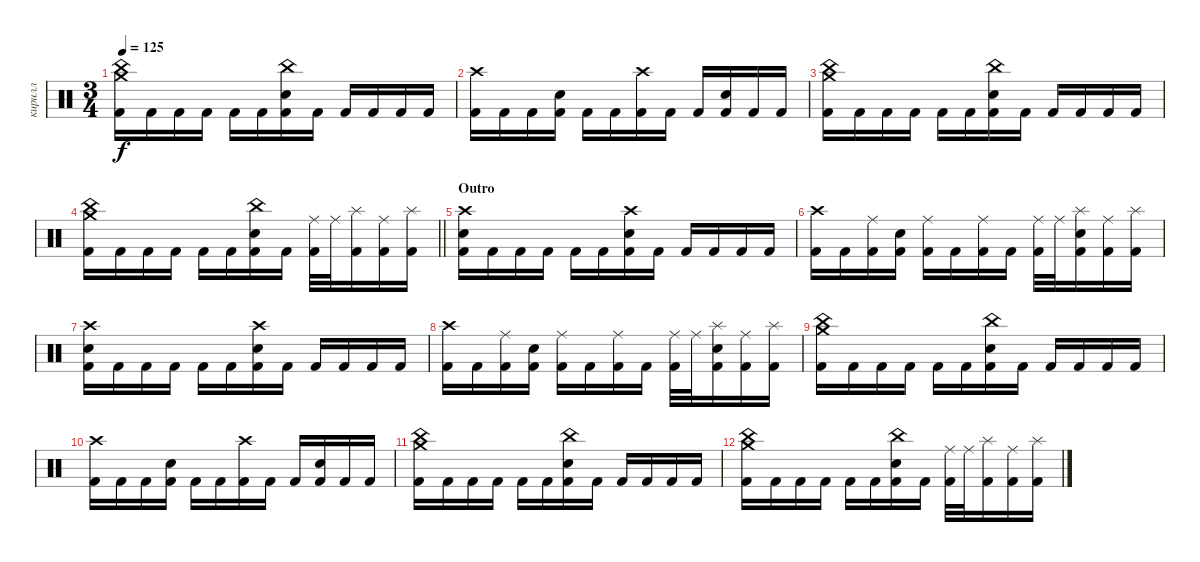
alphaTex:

\track ("кирилл" "кирилл") {instrument percussion}
\staff {score}
\articulation defaults
\ts (3 4)
\tempo 125
\clef neutral
\ks c
("China (hit)" "Crash medium (hit)" "Kick (hit) 2").16{dy f} "Kick (hit) 2".16 "Kick (hit) 2".16 "Kick (hit) 2".16 "Kick (hit) 2".16 "Kick (hit) 2".16 ("China (hit)" "Electric Snare (hit)" "Kick (hit) 2").16 "Kick (hit) 2".16 "Kick (hit) 2".16 "Kick (hit) 2".16 "Kick (hit) 2".16 "Kick (hit) 2".16 |
("Crash high (hit)" "Kick (hit) 2").16 "Kick (hit) 2".16 "Kick (hit) 2".16 ("Electric Snare (hit)" "Kick (hit) 2").16 "Kick (hit) 2".16 "Kick (hit) 2".16 ("Crash high (hit)" "Kick (hit) 2").16 "Kick (hit) 2".16 "Kick (hit) 2".16 ("Electric Snare (hit)" "Kick (hit) 2").16 "Kick (hit) 2".16 "Kick (hit) 2".16 |
("China (hit)" "Crash medium (hit)" "Kick (hit) 2").16 "Kick (hit) 2".16 "Kick (hit) 2".16 "Kick (hit) 2".16 "Kick (hit) 2".16 "Kick (hit) 2".16 ("China (hit)" "Electric Snare (hit)" "Kick (hit) 2").16 "Kick (hit) 2".16 "Kick (hit) 2".16 "Kick (hit) 2".16 "Kick (hit) 2".16 "Kick (hit) 2".16 |
\barLineRight lightlight
("China (hit)" "Crash medium (hit)" "Kick (hit) 2").16 "Kick (hit) 2".16 "Kick (hit) 2".16 "Kick (hit) 2".16 "Kick (hit) 2".16 "Kick (hit) 2".16 ("China (hit)" "Electric Snare (hit)" "Kick (hit) 2").16 "Kick (hit) 2".16 ("Ride (middle)" "Kick (hit) 2").32 "Ride (middle)".32 ("Splash (hit)" "Kick (hit) 2").16 ("Ride (middle)" "Kick (hit) 2").16 ("Splash (hit)" "Kick (hit) 2").16 |
\section ("" "Outro")
("Crash high (hit)" "Electric Snare (hit)" "Kick (hit) 2").16 "Kick (hit) 2".16 "Kick (hit) 2".16 "Kick (hit) 2".16 "Kick (hit) 2".16 "Kick (hit) 2".16 ("Crash high (hit)" "Electric Snare (hit)" "Kick (hit) 2").16 "Kick (hit) 2".16 "Kick (hit) 2".16 "Kick (hit) 2".16 "Kick (hit) 2".16 "Kick (hit) 2".16 |
("Crash high (hit)" "Kick (hit) 2").16 "Kick (hit) 2".16 ("Ride (middle)" "Kick (hit) 2").16 ("Electric Snare (hit)" "Kick (hit) 2").16 ("Ride (middle)" "Kick (hit) 2").16 "Kick (hit) 2".16 ("Ride (middle)" "Kick (hit) 2").16 "Kick (hit) 2".16 ("Ride (middle)" "Kick (hit) 2").32 "Ride (middle)".32 ("Splash (hit)" "Electric Snare (hit)" "Kick (hit) 2").16 ("Ride (middle)" "Kick (hit) 2").16 ("Splash (hit)" "Kick (hit) 2").16 |
("Crash high (hit)" "Electric Snare (hit)" "Kick (hit) 2").16 "Kick (hit) 2".16 "Kick (hit) 2".16 "Kick (hit) 2".16 "Kick (hit) 2".16 "Kick (hit) 2".16 ("Crash high (hit)" "Electric Snare (hit)" "Kick (hit) 2").16 "Kick (hit) 2".16 "Kick (hit) 2".16 "Kick (hit) 2".16 "Kick (hit) 2".16 "Kick (hit) 2".16 |
("Crash high (hit)" "Kick (hit) 2").16 "Kick (hit) 2".16 ("Ride (middle)" "Kick (hit) 2").16 ("Electric Snare (hit)" "Kick (hit) 2").16 ("Ride (middle)" "Kick (hit) 2").16 "Kick (hit) 2".16 ("Ride (middle)" "Kick (hit) 2").16 "Kick (hit) 2".16 ("Ride (middle)" "Kick (hit) 2").32 "Ride (middle)".32 ("Splash (hit)" "Electric Snare (hit)" "Kick (hit) 2").16 ("Ride (middle)" "Kick (hit) 2").16 ("Splash (hit)" "Kick (hit) 2").16 |
("China (hit)" "Crash medium (hit)" "Kick (hit) 2").16 "Kick (hit) 2".16 "Kick (hit) 2".16 "Kick (hit) 2".16 "Kick (hit) 2".16 "Kick (hit) 2".16 ("China (hit)" "Electric Snare (hit)" "Kick (hit) 2").16 "Kick (hit) 2".16 "Kick (hit) 2".16 "Kick (hit) 2".16 "Kick (hit) 2".16 "Kick (hit) 2".16 |
("Crash high (hit)" "Kick (hit) 2").16 "Kick (hit) 2".16 "Kick (hit) 2".16 ("Electric Snare (hit)" "Kick (hit) 2").16 "Kick (hit) 2".16 "Kick (hit) 2".16 ("Crash high (hit)" "Kick (hit) 2").16 "Kick (hit) 2".16 "Kick (hit) 2".16 ("Electric Snare (hit)" "Kick (hit) 2").16 "Kick (hit) 2".16 "Kick (hit) 2".16 |
("China (hit)" "Crash medium (hit)" "Kick (hit) 2").16 "Kick (hit) 2".16 "Kick (hit) 2".16 "Kick (hit) 2".16 "Kick (hit) 2".16 "Kick (hit) 2".16 ("China (hit)" "Electric Snare (hit)" "Kick (hit) 2").16 "Kick (hit) 2".16 "Kick (hit) 2".16 "Kick (hit) 2".16 "Kick (hit) 2".16 "Kick (hit) 2".16 |
("China (hit)" "Crash medium (hit)" "Kick (hit) 2").16 "Kick (hit) 2".16 "Kick (hit) 2".16 "Kick (hit) 2".16 "Kick (hit) 2".16 "Kick (hit) 2".16 ("China (hit)" "Electric Snare (hit)" "Kick (hit) 2").16 "Kick (hit) 2".16 ("Ride (middle)" "Kick (hit) 2").32 "Ride (middle)".32 ("Splash (hit)" "Kick (hit) 2").16 ("Ride (middle)" "Kick (hit) 2").16 ("Splash (hit)" "Kick (hit) 2").16
